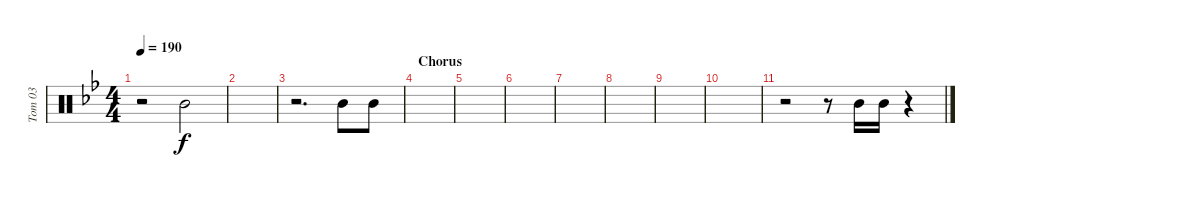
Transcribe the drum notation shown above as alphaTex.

\track ("Tom 03" "Tom 03") {instrument percussion}
\staff {score}
\articulation defaults
\ts (4 4)
\tempo 190
\clef neutral
\ks bb
r.2{dy f} "Mid Tom (hit)".2 |
|
r.2{d} "Mid Tom (hit)".8 "Mid Tom (hit)".8 |
\section ("" "Chorus")
|
|
|
|
|
|
|
r.2 r.8 "Mid Tom (hit)".16 "Mid Tom (hit)".16 r.4
